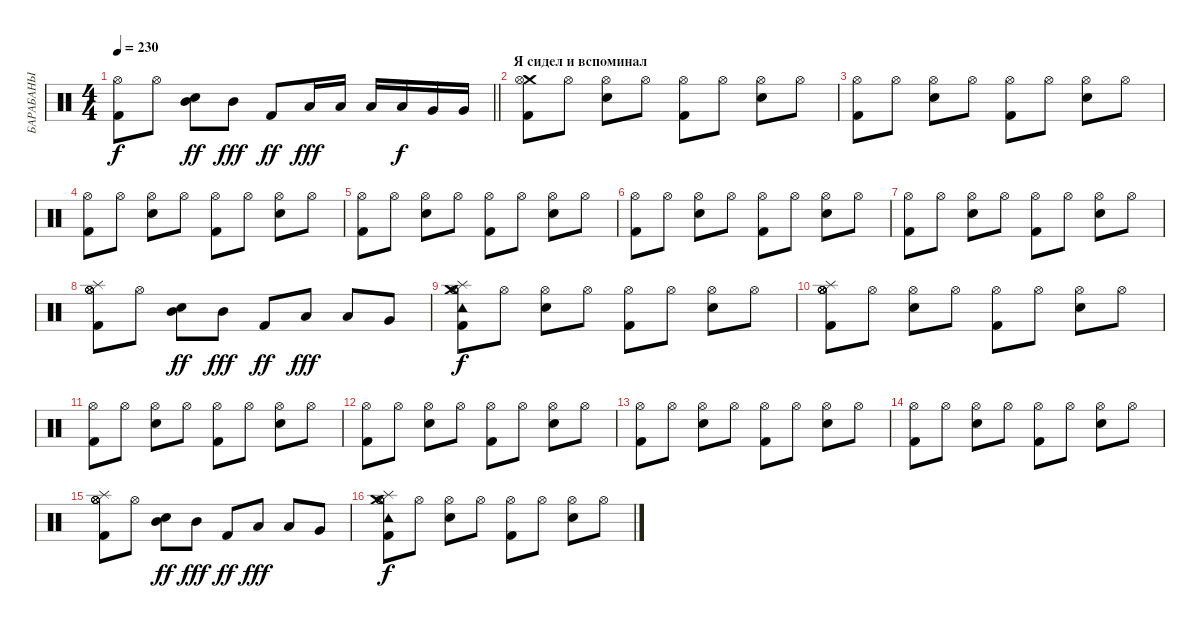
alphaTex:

\track ("БАРАБАНЫ" "БАРАБАНЫ") {instrument percussion}
\staff {score}
\articulation defaults
\ts (4 4)
\tempo 230
\clef neutral
\barLineRight lightlight
\ks c
("Hi-Hat (open)" "Kick (hit) 2").8{dy f} "Hi-Hat (open)".8 ("Mid Tom (hit)" "Electric Snare (hit)").8{dy ff} "Mid Tom (hit)".8{dy fff} "Kick (hit) 2".8{dy ff} "Low Tom (hit)".16{dy fff} "Low Tom (hit)".16 "Low Tom (hit)".16 "Low Tom (hit)".16{dy f} "Very Low Tom (hit)".16 "Very Low Tom (hit)".16 |
\section ("" "Я сидел и вспоминал")
("Crash medium (hit)" "Hi-Hat (open)" "Kick (hit) 2").8 "Hi-Hat (open)".8 ("Hi-Hat (open)" "Electric Snare (hit)").8 "Hi-Hat (open)".8 ("Hi-Hat (open)" "Kick (hit) 2").8 "Hi-Hat (open)".8 ("Hi-Hat (open)" "Electric Snare (hit)").8 "Hi-Hat (open)".8 |
("Hi-Hat (open)" "Kick (hit) 2").8 "Hi-Hat (open)".8 ("Hi-Hat (open)" "Electric Snare (hit)").8 "Hi-Hat (open)".8 ("Hi-Hat (open)" "Kick (hit) 2").8 "Hi-Hat (open)".8 ("Hi-Hat (open)" "Electric Snare (hit)").8 "Hi-Hat (open)".8 |
("Hi-Hat (open)" "Kick (hit) 2").8 "Hi-Hat (open)".8 ("Hi-Hat (open)" "Electric Snare (hit)").8 "Hi-Hat (open)".8 ("Hi-Hat (open)" "Kick (hit) 2").8 "Hi-Hat (open)".8 ("Hi-Hat (open)" "Electric Snare (hit)").8 "Hi-Hat (open)".8 |
("Hi-Hat (open)" "Kick (hit) 2").8 "Hi-Hat (open)".8 ("Hi-Hat (open)" "Electric Snare (hit)").8 "Hi-Hat (open)".8 ("Hi-Hat (open)" "Kick (hit) 2").8 "Hi-Hat (open)".8 ("Hi-Hat (open)" "Electric Snare (hit)").8 "Hi-Hat (open)".8 |
("Hi-Hat (open)" "Kick (hit) 2").8 "Hi-Hat (open)".8 ("Hi-Hat (open)" "Electric Snare (hit)").8 "Hi-Hat (open)".8 ("Hi-Hat (open)" "Kick (hit) 2").8 "Hi-Hat (open)".8 ("Hi-Hat (open)" "Electric Snare (hit)").8 "Hi-Hat (open)".8 |
("Hi-Hat (open)" "Kick (hit) 2").8 "Hi-Hat (open)".8 ("Hi-Hat (open)" "Electric Snare (hit)").8 "Hi-Hat (open)".8 ("Hi-Hat (open)" "Kick (hit) 2").8 "Hi-Hat (open)".8 ("Hi-Hat (open)" "Electric Snare (hit)").8 "Hi-Hat (open)".8 |
("Hi-Hat (open)" "Hi-Hat (open)" "Splash (hit)" "Hi-Hat (open)" "Kick (hit) 2").8 "Hi-Hat (open)".8 ("Mid Tom (hit)" "Electric Snare (hit)").8{dy ff} "Mid Tom (hit)".8{dy fff} "Kick (hit) 2".8{dy ff} "Low Tom (hit)".8{dy fff} "Low Tom (hit)".8 "Very Low Tom (hit)".8 |
("Crash medium (hit)" "Hi-Hat (open)" "Splash (hit)" "Tambourine (hit)" "Hi-Hat (open)" "Kick (hit) 2").8{dy f} "Hi-Hat (open)".8 ("Hi-Hat (open)" "Electric Snare (hit)").8 "Hi-Hat (open)".8 ("Hi-Hat (open)" "Kick (hit) 2").8 "Hi-Hat (open)".8 ("Hi-Hat (open)" "Electric Snare (hit)").8 "Hi-Hat (open)".8 |
("Hi-Hat (open)" "Hi-Hat (open)" "Splash (hit)" "Hi-Hat (open)" "Hi-Hat (open)" "Kick (hit) 2").8 "Hi-Hat (open)".8 ("Hi-Hat (open)" "Electric Snare (hit)").8 "Hi-Hat (open)".8 ("Hi-Hat (open)" "Kick (hit) 2").8 "Hi-Hat (open)".8 ("Hi-Hat (open)" "Electric Snare (hit)").8 "Hi-Hat (open)".8 |
("Hi-Hat (open)" "Kick (hit) 2").8 "Hi-Hat (open)".8 ("Hi-Hat (open)" "Electric Snare (hit)").8 "Hi-Hat (open)".8 ("Hi-Hat (open)" "Kick (hit) 2").8 "Hi-Hat (open)".8 ("Hi-Hat (open)" "Electric Snare (hit)").8 "Hi-Hat (open)".8 |
("Hi-Hat (open)" "Kick (hit) 2").8 "Hi-Hat (open)".8 ("Hi-Hat (open)" "Electric Snare (hit)").8 "Hi-Hat (open)".8 ("Hi-Hat (open)" "Kick (hit) 2").8 "Hi-Hat (open)".8 ("Hi-Hat (open)" "Electric Snare (hit)").8 "Hi-Hat (open)".8 |
("Hi-Hat (open)" "Kick (hit) 2").8 "Hi-Hat (open)".8 ("Hi-Hat (open)" "Electric Snare (hit)").8 "Hi-Hat (open)".8 ("Hi-Hat (open)" "Kick (hit) 2").8 "Hi-Hat (open)".8 ("Hi-Hat (open)" "Electric Snare (hit)").8 "Hi-Hat (open)".8 |
("Hi-Hat (open)" "Kick (hit) 2").8 "Hi-Hat (open)".8 ("Hi-Hat (open)" "Electric Snare (hit)").8 "Hi-Hat (open)".8 ("Hi-Hat (open)" "Kick (hit) 2").8 "Hi-Hat (open)".8 ("Hi-Hat (open)" "Electric Snare (hit)").8 "Hi-Hat (open)".8 |
("Hi-Hat (open)" "Hi-Hat (open)" "Splash (hit)" "Hi-Hat (open)" "Kick (hit) 2").8 "Hi-Hat (open)".8 ("Mid Tom (hit)" "Electric Snare (hit)").8{dy ff} "Mid Tom (hit)".8{dy fff} "Kick (hit) 2".8{dy ff} "Low Tom (hit)".8{dy fff} "Low Tom (hit)".8 "Very Low Tom (hit)".8 |
("Crash medium (hit)" "Hi-Hat (open)" "Splash (hit)" "Tambourine (hit)" "Hi-Hat (open)" "Kick (hit) 2").8{dy f} "Hi-Hat (open)".8 ("Hi-Hat (open)" "Electric Snare (hit)").8 "Hi-Hat (open)".8 ("Hi-Hat (open)" "Kick (hit) 2").8 "Hi-Hat (open)".8 ("Hi-Hat (open)" "Electric Snare (hit)").8 "Hi-Hat (open)".8
